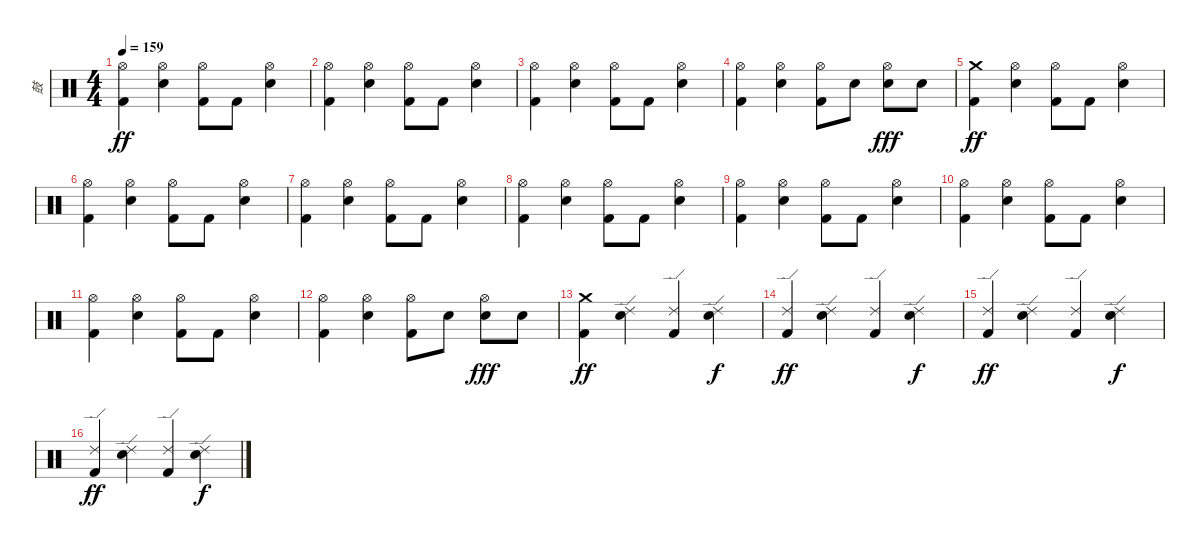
\track ("鼓" "鼓") {instrument percussion}
\staff {score}
\articulation defaults
\ts (4 4)
\tempo 159
\clef neutral
\ks c
("Hi-Hat (open)" "Kick (hit) 2").4{dy ff} ("Hi-Hat (open)" "Electric Snare (hit)").4 ("Hi-Hat (open)" "Kick (hit) 2").8 "Kick (hit) 2".8 ("Hi-Hat (open)" "Electric Snare (hit)").4 |
("Hi-Hat (open)" "Kick (hit) 2").4 ("Hi-Hat (open)" "Electric Snare (hit)").4 ("Hi-Hat (open)" "Kick (hit) 2").8 "Kick (hit) 2".8 ("Hi-Hat (open)" "Electric Snare (hit)").4 |
("Hi-Hat (open)" "Kick (hit) 2").4 ("Hi-Hat (open)" "Electric Snare (hit)").4 ("Hi-Hat (open)" "Kick (hit) 2").8 "Kick (hit) 2".8 ("Hi-Hat (open)" "Electric Snare (hit)").4 |
("Hi-Hat (open)" "Kick (hit) 2").4 ("Hi-Hat (open)" "Electric Snare (hit)").4 ("Hi-Hat (open)" "Kick (hit) 2").8 "Electric Snare (hit)".8 ("Hi-Hat (open)" "Electric Snare (hit)").8{dy fff} "Electric Snare (hit)".8 |
("Crash medium (hit)" "Kick (hit) 2").4{dy ff} ("Hi-Hat (open)" "Electric Snare (hit)").4 ("Hi-Hat (open)" "Kick (hit) 2").8 "Kick (hit) 2".8 ("Hi-Hat (open)" "Electric Snare (hit)").4 |
("Hi-Hat (open)" "Kick (hit) 2").4 ("Hi-Hat (open)" "Electric Snare (hit)").4 ("Hi-Hat (open)" "Kick (hit) 2").8 "Kick (hit) 2".8 ("Hi-Hat (open)" "Electric Snare (hit)").4 |
("Hi-Hat (open)" "Kick (hit) 2").4 ("Hi-Hat (open)" "Electric Snare (hit)").4 ("Hi-Hat (open)" "Kick (hit) 2").8 "Kick (hit) 2".8 ("Hi-Hat (open)" "Electric Snare (hit)").4 |
("Hi-Hat (open)" "Kick (hit) 2").4 ("Hi-Hat (open)" "Electric Snare (hit)").4 ("Hi-Hat (open)" "Kick (hit) 2").8 "Kick (hit) 2".8 ("Hi-Hat (open)" "Electric Snare (hit)").4 |
("Hi-Hat (open)" "Kick (hit) 2").4 ("Hi-Hat (open)" "Electric Snare (hit)").4 ("Hi-Hat (open)" "Kick (hit) 2").8 "Kick (hit) 2".8 ("Hi-Hat (open)" "Electric Snare (hit)").4 |
("Hi-Hat (open)" "Kick (hit) 2").4 ("Hi-Hat (open)" "Electric Snare (hit)").4 ("Hi-Hat (open)" "Kick (hit) 2").8 "Kick (hit) 2".8 ("Hi-Hat (open)" "Electric Snare (hit)").4 |
("Hi-Hat (open)" "Kick (hit) 2").4 ("Hi-Hat (open)" "Electric Snare (hit)").4 ("Hi-Hat (open)" "Kick (hit) 2").8 "Kick (hit) 2".8 ("Hi-Hat (open)" "Electric Snare (hit)").4 |
("Hi-Hat (open)" "Kick (hit) 2").4 ("Hi-Hat (open)" "Electric Snare (hit)").4 ("Hi-Hat (open)" "Kick (hit) 2").8 "Electric Snare (hit)".8 ("Hi-Hat (open)" "Electric Snare (hit)").8{dy fff} "Electric Snare (hit)".8 |
("Crash medium (hit)" "Kick (hit) 2").4{dy ff} ("Ride (edge) 2" "Electric Snare (hit)").4 ("Ride (edge) 2" "Kick (hit) 2").4 ("Ride (edge) 2" "Electric Snare (hit)").4{dy f} |
("Ride (edge) 2" "Kick (hit) 2").4{dy ff} ("Ride (edge) 2" "Electric Snare (hit)").4 ("Ride (edge) 2" "Kick (hit) 2").4 ("Ride (edge) 2" "Electric Snare (hit)").4{dy f} |
("Ride (edge) 2" "Kick (hit) 2").4{dy ff} ("Ride (edge) 2" "Electric Snare (hit)").4 ("Ride (edge) 2" "Kick (hit) 2").4 ("Ride (edge) 2" "Electric Snare (hit)").4{dy f} |
("Ride (edge) 2" "Kick (hit) 2").4{dy ff} ("Ride (edge) 2" "Electric Snare (hit)").4 ("Ride (edge) 2" "Kick (hit) 2").4 ("Ride (edge) 2" "Electric Snare (hit)").4{dy f}
